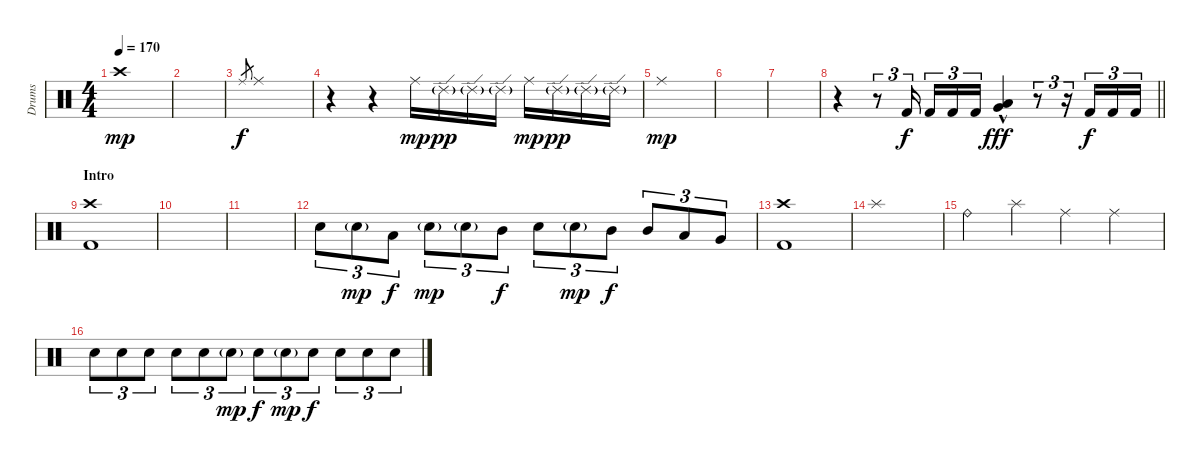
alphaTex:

\track ("Drums" "Drums") {instrument percussion}
\staff {score}
\articulation defaults
\ts (4 4)
\tempo 170
\clef neutral
\ks c "Crash high (hit)".1{dy mp}
|
|
"Ride (middle)".8{gr dy f} "Ride (middle)".1 |
r.4 r.4 "Ride (middle)".16{dy mp} "Ride (edge) 2"{g}.16{dy pp} "Ride (edge) 2"{g}.16 "Ride (edge) 2"{g}.16 "Ride (middle)".16{dy mp} "Ride (edge) 2"{g}.16{dy pp} "Ride (edge) 2"{g}.16 "Ride (edge) 2"{g}.16 |
"Ride (middle)".1{dy mp} |
|
|
\barLineRight lightlight
r.4 r.8{tu (3 2)} "Kick (hit) 2".16{tu (3 2) dy f beam splitsecondary} "Kick (hit) 2".16{tu (3 2)} "Kick (hit) 2".16{tu (3 2)} "Kick (hit) 2".16{tu (3 2)} ("Very Low Tom (hit)"{hac} "Low Floor Tom (hit)"{hac}).4{dy fff} r.8{tu (3 2)} r.16{tu (3 2)} "Kick (hit) 2".16{tu (3 2) dy f} "Kick (hit) 2".16{tu (3 2)} "Kick (hit) 2".16{tu (3 2)} |
\section ("" "Intro")
("Crash high (hit)" "Kick (hit) 2").1 |
|
|
"Electric Snare (hit)".8{tu (3 2)} "Electric Snare (hit)"{g}.8{tu (3 2) dy mp} "Low Tom (hit)".8{tu (3 2) dy f} "Electric Snare (hit)"{g}.8{tu (3 2) dy mp} "Electric Snare (hit)"{g}.8{tu (3 2)} "Mid Tom (hit)".8{tu (3 2) dy f} "Electric Snare (hit)".8{tu (3 2)} "Electric Snare (hit)"{g}.8{tu (3 2) dy mp} "Mid Tom (hit)".8{tu (3 2) dy f} "Mid Tom (hit)".8{tu (3 2)} "Low Tom (hit)".8{tu (3 2)} "Very Low Tom (hit)".8{tu (3 2)} |
("Crash high (hit)" "Kick (hit) 2").1 |
"Splash (hit)".1 |
"Ride (bell)".4 "Splash (hit)".4 "Ride (middle)".4 "Ride (middle)".4 |
"Electric Snare (hit)".8{tu (3 2)} "Electric Snare (hit)".8{tu (3 2)} "Electric Snare (hit)".8{tu (3 2)} "Electric Snare (hit)".8{tu (3 2)} "Electric Snare (hit)".8{tu (3 2)} "Electric Snare (hit)"{g}.8{tu (3 2) dy mp} "Electric Snare (hit)".8{tu (3 2) dy f} "Electric Snare (hit)"{g}.8{tu (3 2) dy mp} "Electric Snare (hit)".8{tu (3 2) dy f} "Electric Snare (hit)".8{tu (3 2)} "Electric Snare (hit)".8{tu (3 2)} "Electric Snare (hit)".8{tu (3 2)}
